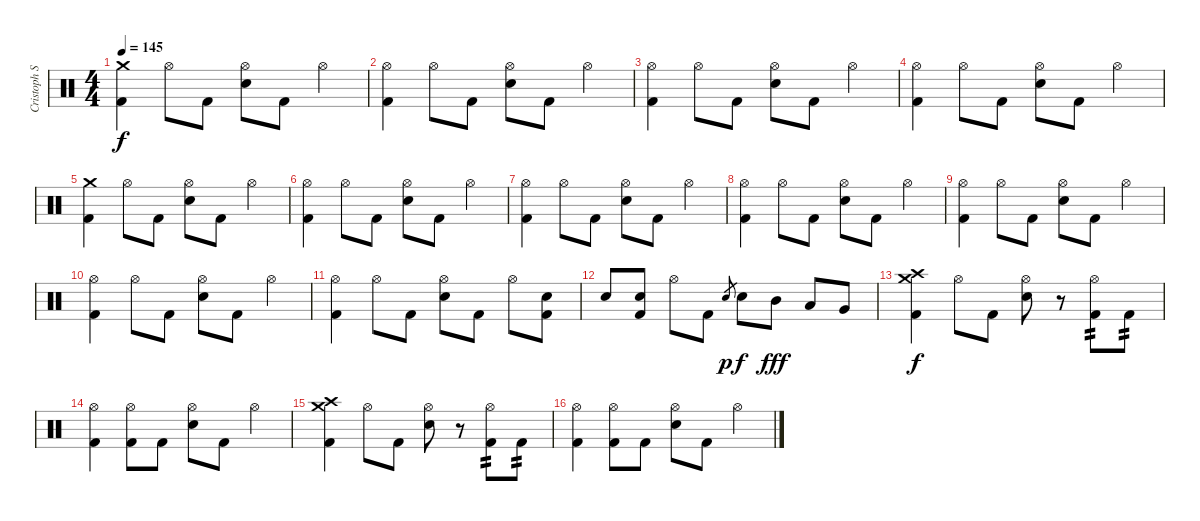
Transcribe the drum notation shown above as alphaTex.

\track ("Cristoph Schneider" "Cristoph S") {instrument percussion}
\staff {score}
\articulation defaults
\ts (4 4)
\tempo 145
\clef neutral
\ks c
("Kick (hit) 2" "Crash medium (hit)").4{dy f} "Hi-Hat (open)".8 "Kick (hit) 2".8 ("Hi-Hat (open)" "Snare (hit) 2").8 "Kick (hit) 2".8 "Hi-Hat (open)".4 |
("Kick (hit) 2" "Hi-Hat (open)").4 "Hi-Hat (open)".8 "Kick (hit) 2".8 ("Hi-Hat (open)" "Snare (hit) 2").8 "Kick (hit) 2".8 "Hi-Hat (open)".4 |
("Kick (hit) 2" "Hi-Hat (open)").4 "Hi-Hat (open)".8 "Kick (hit) 2".8 ("Hi-Hat (open)" "Snare (hit) 2").8 "Kick (hit) 2".8 "Hi-Hat (open)".4 |
("Kick (hit) 2" "Hi-Hat (open)").4 "Hi-Hat (open)".8 "Kick (hit) 2".8 ("Hi-Hat (open)" "Snare (hit) 2").8 "Kick (hit) 2".8 "Hi-Hat (open)".4 |
("Kick (hit) 2" "Crash medium (hit)").4 "Hi-Hat (open)".8 "Kick (hit) 2".8 ("Hi-Hat (open)" "Snare (hit) 2").8 "Kick (hit) 2".8 "Hi-Hat (open)".4 |
("Kick (hit) 2" "Hi-Hat (open)").4 "Hi-Hat (open)".8 "Kick (hit) 2".8 ("Hi-Hat (open)" "Snare (hit) 2").8 "Kick (hit) 2".8 "Hi-Hat (open)".4 |
("Kick (hit) 2" "Hi-Hat (open)").4 "Hi-Hat (open)".8 "Kick (hit) 2".8 ("Hi-Hat (open)" "Snare (hit) 2").8 "Kick (hit) 2".8 "Hi-Hat (open)".4 |
("Kick (hit) 2" "Hi-Hat (open)").4 "Hi-Hat (open)".8 "Kick (hit) 2".8 ("Hi-Hat (open)" "Snare (hit) 2").8 "Kick (hit) 2".8 "Hi-Hat (open)".4 |
("Kick (hit) 2" "Hi-Hat (open)").4 "Hi-Hat (open)".8 "Kick (hit) 2".8 ("Hi-Hat (open)" "Snare (hit) 2").8 "Kick (hit) 2".8 "Hi-Hat (open)".4 |
("Kick (hit) 2" "Hi-Hat (open)").4 "Hi-Hat (open)".8 "Kick (hit) 2".8 ("Hi-Hat (open)" "Snare (hit) 2").8 "Kick (hit) 2".8 "Hi-Hat (open)".4 |
("Kick (hit) 2" "Hi-Hat (open)").4 "Hi-Hat (open)".8 "Kick (hit) 2".8 ("Hi-Hat (open)" "Snare (hit) 2").8 "Kick (hit) 2".8 "Hi-Hat (open)".8 ("Kick (hit) 2" "Electric Snare (hit)").8 |
"Snare (hit) 2".8 ("Kick (hit) 2" "Electric Snare (hit)").8 "Hi-Hat (open)".8 "Kick (hit) 2".8 "Snare (hit) 2".8{gr dy p} "Snare (hit) 2".8{dy f} "Mid Tom (hit)".8{dy fff} "Low Tom (hit)".8 "Very Low Tom (hit)".8 |
("Crash high (hit)" "Crash medium (hit)" "Kick (hit) 2").4{dy f} "Hi-Hat (open)".8 "Kick (hit) 2".8 ("Hi-Hat (open)" "Electric Snare (hit)").8 r.8 ("Hi-Hat (open)" "Kick (hit) 2").8{tp 2} "Kick (hit) 2".8{tp 2} |
("Hi-Hat (open)" "Kick (hit) 2").4 ("Hi-Hat (open)" "Kick (hit) 2").8 "Kick (hit) 2".8 ("Hi-Hat (open)" "Electric Snare (hit)").8 "Kick (hit) 2".8 "Hi-Hat (open)".4 |
("Crash high (hit)" "Crash medium (hit)" "Kick (hit) 2").4 "Hi-Hat (open)".8 "Kick (hit) 2".8 ("Hi-Hat (open)" "Electric Snare (hit)").8 r.8 ("Hi-Hat (open)" "Kick (hit) 2").8{tp 2} "Kick (hit) 2".8{tp 2} |
("Hi-Hat (open)" "Kick (hit) 2").4 ("Hi-Hat (open)" "Kick (hit) 2").8 "Kick (hit) 2".8 ("Hi-Hat (open)" "Electric Snare (hit)").8 "Kick (hit) 2".8 "Hi-Hat (open)".4
